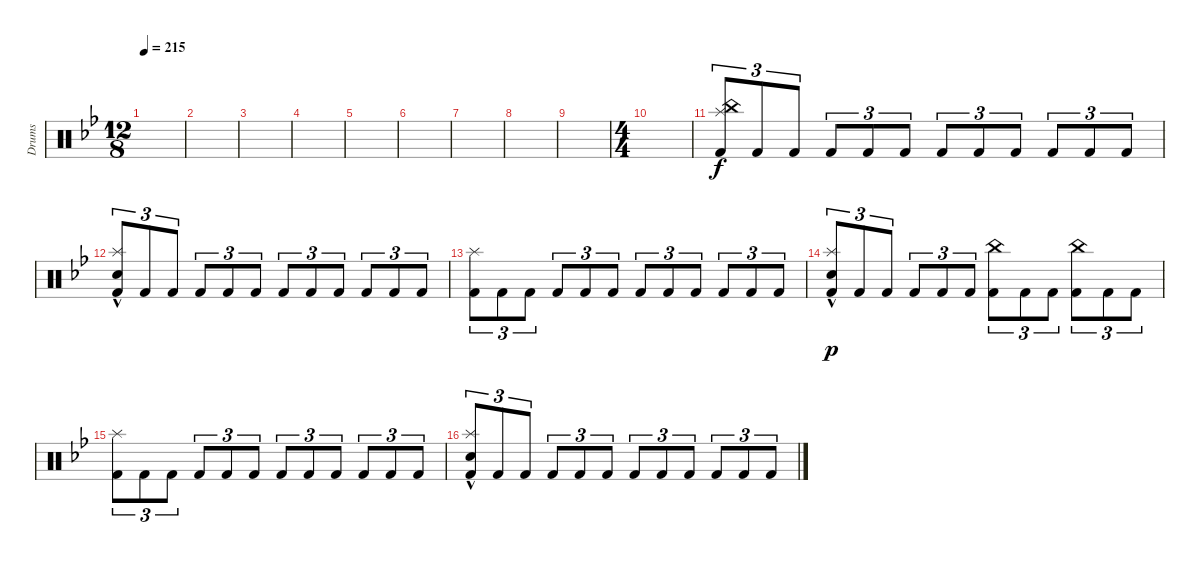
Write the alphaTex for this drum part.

\defaultSystemsLayout 4
\bracketExtendMode groupsimilarinstruments
\otherSystemsTrackNameOrientation horizontal
\track ("Drumkit" "Drums") {instrument percussion}
\staff {score}
\articulation defaults
\ts (12 8)
\tempo 215
\clef neutral
\ks bb
|
|
|
|
|
|
|
|
|
\ts (4 4)
|
("China (hit)"{acc forcenatural} "Kick (hit) 2"{acc forcenatural} "Splash (hit)"{acc forcenatural}).8{tu (3 2) beam Up} "Kick (hit) 2"{acc forcenatural}.8{tu (3 2) beam Up} "Kick (hit) 2"{acc forcenatural}.8{tu (3 2) beam Up} "Kick (hit) 2"{acc forcenatural}.8{tu (3 2) beam Up} "Kick (hit) 2"{acc forcenatural}.8{tu (3 2) beam Up} "Kick (hit) 2"{acc forcenatural}.8{tu (3 2) beam Up} "Kick (hit) 2"{acc forcenatural}.8{tu (3 2) beam Up} "Kick (hit) 2"{acc forcenatural}.8{tu (3 2) beam Up} "Kick (hit) 2"{acc forcenatural}.8{tu (3 2) beam Up} "Kick (hit) 2"{acc forcenatural}.8{tu (3 2) beam Up} "Kick (hit) 2"{acc forcenatural}.8{tu (3 2) beam Up} "Kick (hit) 2"{acc forcenatural}.8{tu (3 2) beam Up} |
("Snare (hit) 2"{hac acc forcenatural} "Kick (hit) 2"{acc forcenatural} "Splash (hit)"{acc forcenatural}).8{tu (3 2) beam Up} "Kick (hit) 2"{acc forcenatural}.8{tu (3 2) beam Up} "Kick (hit) 2"{acc forcenatural}.8{tu (3 2) beam Up} "Kick (hit) 2"{acc forcenatural}.8{tu (3 2) beam Up} "Kick (hit) 2"{acc forcenatural}.8{tu (3 2) beam Up} "Kick (hit) 2"{acc forcenatural}.8{tu (3 2) beam Up} "Kick (hit) 2"{acc forcenatural}.8{tu (3 2) beam Up} "Kick (hit) 2"{acc forcenatural}.8{tu (3 2) beam Up} "Kick (hit) 2"{acc forcenatural}.8{tu (3 2) beam Up} "Kick (hit) 2"{acc forcenatural}.8{tu (3 2) beam Up} "Kick (hit) 2"{acc forcenatural}.8{tu (3 2) beam Up} "Kick (hit) 2"{acc forcenatural}.8{tu (3 2) beam Up} |
("Kick (hit) 2"{acc forcenatural} "Splash (hit)"{acc forcenatural}).8{tu (3 2) beam Down} "Kick (hit) 2"{acc forcenatural}.8{tu (3 2) beam Down} "Kick (hit) 2"{acc forcenatural}.8{tu (3 2) beam Down} "Kick (hit) 2"{acc forcenatural}.8{tu (3 2) beam Up} "Kick (hit) 2"{acc forcenatural}.8{tu (3 2) beam Up} "Kick (hit) 2"{acc forcenatural}.8{tu (3 2) beam Up} "Kick (hit) 2"{acc forcenatural}.8{tu (3 2) beam Up} "Kick (hit) 2"{acc forcenatural}.8{tu (3 2) beam Up} "Kick (hit) 2"{acc forcenatural}.8{tu (3 2) beam Up} "Kick (hit) 2"{acc forcenatural}.8{tu (3 2) beam Up} "Kick (hit) 2"{acc forcenatural}.8{tu (3 2) beam Up} "Kick (hit) 2"{acc forcenatural}.8{tu (3 2) beam Up} |
("Snare (hit) 2"{hac acc forcenatural} "Kick (hit) 2"{acc forcenatural} "Splash (hit)"{acc forcenatural}).8{tu (3 2) dy p beam Up} "Kick (hit) 2"{acc forcenatural}.8{tu (3 2) beam Up} "Kick (hit) 2"{acc forcenatural}.8{tu (3 2) beam Up} "Kick (hit) 2"{acc forcenatural}.8{tu (3 2) beam Up} "Kick (hit) 2"{acc forcenatural}.8{tu (3 2) beam Up} "Kick (hit) 2"{acc forcenatural}.8{tu (3 2) beam Up} ("Kick (hit) 2"{acc forcenatural} "China (hit)"{acc forcenatural}).8{tu (3 2) beam Down} "Kick (hit) 2"{acc forcenatural}.8{tu (3 2) beam Down} "Kick (hit) 2"{acc forcenatural}.8{tu (3 2) beam Down} ("Kick (hit) 2"{acc forcenatural} "China (hit)"{acc forcenatural}).8{tu (3 2) beam Down} "Kick (hit) 2"{acc forcenatural}.8{tu (3 2) beam Down} "Kick (hit) 2"{acc forcenatural}.8{tu (3 2) beam Down} |
("Kick (hit) 2"{acc forcenatural} "Splash (hit)"{acc forcenatural}).8{tu (3 2) beam Down} "Kick (hit) 2"{acc forcenatural}.8{tu (3 2) beam Down} "Kick (hit) 2"{acc forcenatural}.8{tu (3 2) beam Down} "Kick (hit) 2"{acc forcenatural}.8{tu (3 2) beam Up} "Kick (hit) 2"{acc forcenatural}.8{tu (3 2) beam Up} "Kick (hit) 2"{acc forcenatural}.8{tu (3 2) beam Up} "Kick (hit) 2"{acc forcenatural}.8{tu (3 2) beam Up} "Kick (hit) 2"{acc forcenatural}.8{tu (3 2) beam Up} "Kick (hit) 2"{acc forcenatural}.8{tu (3 2) beam Up} "Kick (hit) 2"{acc forcenatural}.8{tu (3 2) beam Up} "Kick (hit) 2"{acc forcenatural}.8{tu (3 2) beam Up} "Kick (hit) 2"{acc forcenatural}.8{tu (3 2) beam Up} |
("Snare (hit) 2"{hac acc forcenatural} "Kick (hit) 2"{acc forcenatural} "Splash (hit)"{acc forcenatural}).8{tu (3 2) beam Up} "Kick (hit) 2"{acc forcenatural}.8{tu (3 2) beam Up} "Kick (hit) 2"{acc forcenatural}.8{tu (3 2) beam Up} "Kick (hit) 2"{acc forcenatural}.8{tu (3 2) beam Up} "Kick (hit) 2"{acc forcenatural}.8{tu (3 2) beam Up} "Kick (hit) 2"{acc forcenatural}.8{tu (3 2) beam Up} "Kick (hit) 2"{acc forcenatural}.8{tu (3 2) beam Up} "Kick (hit) 2"{acc forcenatural}.8{tu (3 2) beam Up} "Kick (hit) 2"{acc forcenatural}.8{tu (3 2) beam Up} "Kick (hit) 2"{acc forcenatural}.8{tu (3 2) beam Up} "Kick (hit) 2"{acc forcenatural}.8{tu (3 2) beam Up} "Kick (hit) 2"{acc forcenatural}.8{tu (3 2) beam Up}
